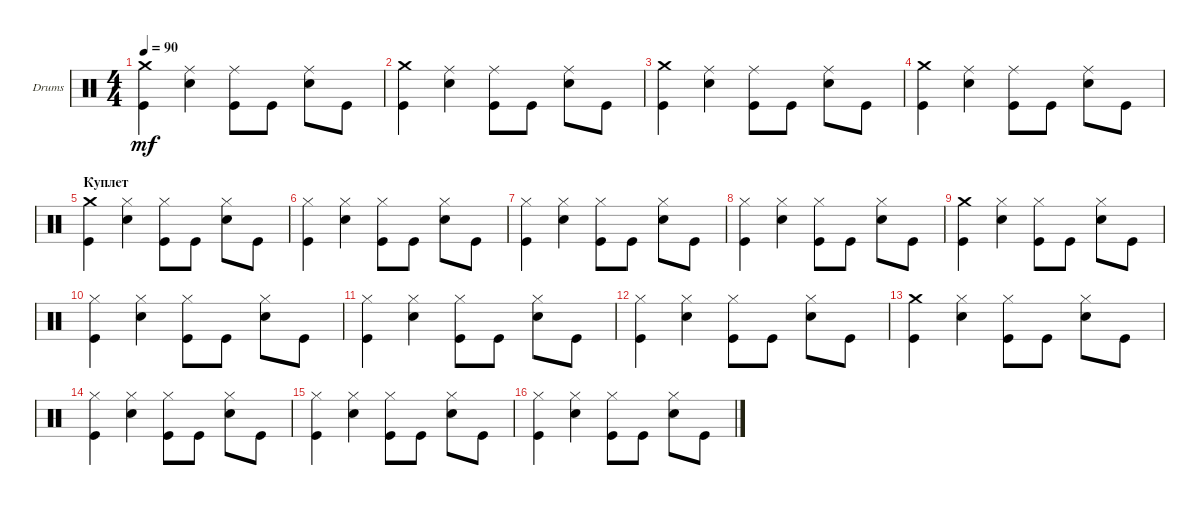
\bracketExtendMode groupsimilarinstruments
\firstSystemTrackNameOrientation horizontal
\otherSystemsTrackNameOrientation horizontal
\track ("Drumkit" "Drums") {instrument percussion}
\staff {score}
\articulation defaults
\ts (4 4)
\tempo 90
\clef neutral
\ks c
("Kick (hit)" "Crash medium (hit)").4{dy mf} ("Snare (hit) 2" "Ride (middle)").4 ("Kick (hit)" "Ride (middle)").8 "Kick (hit)".8 ("Snare (hit) 2" "Ride (middle)").8 "Kick (hit)".8 |
("Kick (hit)" "Crash medium (hit)").4 ("Snare (hit) 2" "Ride (middle)").4 ("Kick (hit)" "Ride (middle)").8 "Kick (hit)".8 ("Snare (hit) 2" "Ride (middle)").8 "Kick (hit)".8 |
("Kick (hit)" "Crash medium (hit)").4 ("Snare (hit) 2" "Ride (middle)").4 ("Kick (hit)" "Ride (middle)").8 "Kick (hit)".8 ("Snare (hit) 2" "Ride (middle)").8 "Kick (hit)".8 |
("Kick (hit)" "Crash medium (hit)").4 ("Snare (hit) 2" "Ride (middle)").4 ("Kick (hit)" "Ride (middle)").8 "Kick (hit)".8 ("Snare (hit) 2" "Ride (middle)").8 "Kick (hit)".8 |
\section ("" "Куплет")
("Kick (hit)" "Crash medium (hit)").4 ("Snare (hit) 2" "Hi-Hat (closed)").4 ("Kick (hit)" "Hi-Hat (closed)").8 "Kick (hit)".8 ("Snare (hit) 2" "Hi-Hat (closed)").8 "Kick (hit)".8 |
("Kick (hit)" "Hi-Hat (closed)").4 ("Snare (hit) 2" "Hi-Hat (closed)").4 ("Kick (hit)" "Hi-Hat (closed)").8 "Kick (hit)".8 ("Snare (hit) 2" "Hi-Hat (closed)").8 "Kick (hit)".8 |
("Kick (hit)" "Hi-Hat (closed)").4 ("Snare (hit) 2" "Hi-Hat (closed)").4 ("Kick (hit)" "Hi-Hat (closed)").8 "Kick (hit)".8 ("Snare (hit) 2" "Hi-Hat (closed)").8 "Kick (hit)".8 |
("Kick (hit)" "Hi-Hat (closed)").4 ("Snare (hit) 2" "Hi-Hat (closed)").4 ("Kick (hit)" "Hi-Hat (closed)").8 "Kick (hit)".8 ("Snare (hit) 2" "Hi-Hat (closed)").8 "Kick (hit)".8 |
("Kick (hit)" "Crash medium (hit)").4 ("Snare (hit) 2" "Hi-Hat (closed)").4 ("Kick (hit)" "Hi-Hat (closed)").8 "Kick (hit)".8 ("Snare (hit) 2" "Hi-Hat (closed)").8 "Kick (hit)".8 |
("Kick (hit)" "Hi-Hat (closed)").4 ("Snare (hit) 2" "Hi-Hat (closed)").4 ("Kick (hit)" "Hi-Hat (closed)").8 "Kick (hit)".8 ("Snare (hit) 2" "Hi-Hat (closed)").8 "Kick (hit)".8 |
("Kick (hit)" "Hi-Hat (closed)").4 ("Snare (hit) 2" "Hi-Hat (closed)").4 ("Kick (hit)" "Hi-Hat (closed)").8 "Kick (hit)".8 ("Snare (hit) 2" "Hi-Hat (closed)").8 "Kick (hit)".8 |
("Kick (hit)" "Hi-Hat (closed)").4 ("Snare (hit) 2" "Hi-Hat (closed)").4 ("Kick (hit)" "Hi-Hat (closed)").8 "Kick (hit)".8 ("Snare (hit) 2" "Hi-Hat (closed)").8 "Kick (hit)".8 |
("Kick (hit)" "Crash medium (hit)").4 ("Snare (hit) 2" "Hi-Hat (closed)").4 ("Kick (hit)" "Hi-Hat (closed)").8 "Kick (hit)".8 ("Snare (hit) 2" "Hi-Hat (closed)").8 "Kick (hit)".8 |
("Kick (hit)" "Hi-Hat (closed)").4 ("Snare (hit) 2" "Hi-Hat (closed)").4 ("Kick (hit)" "Hi-Hat (closed)").8 "Kick (hit)".8 ("Snare (hit) 2" "Hi-Hat (closed)").8 "Kick (hit)".8 |
("Kick (hit)" "Hi-Hat (closed)").4 ("Snare (hit) 2" "Hi-Hat (closed)").4 ("Kick (hit)" "Hi-Hat (closed)").8 "Kick (hit)".8 ("Snare (hit) 2" "Hi-Hat (closed)").8 "Kick (hit)".8 |
("Kick (hit)" "Hi-Hat (closed)").4 ("Snare (hit) 2" "Hi-Hat (closed)").4 ("Kick (hit)" "Hi-Hat (closed)").8 "Kick (hit)".8 ("Snare (hit) 2" "Hi-Hat (closed)").8 "Kick (hit)".8
